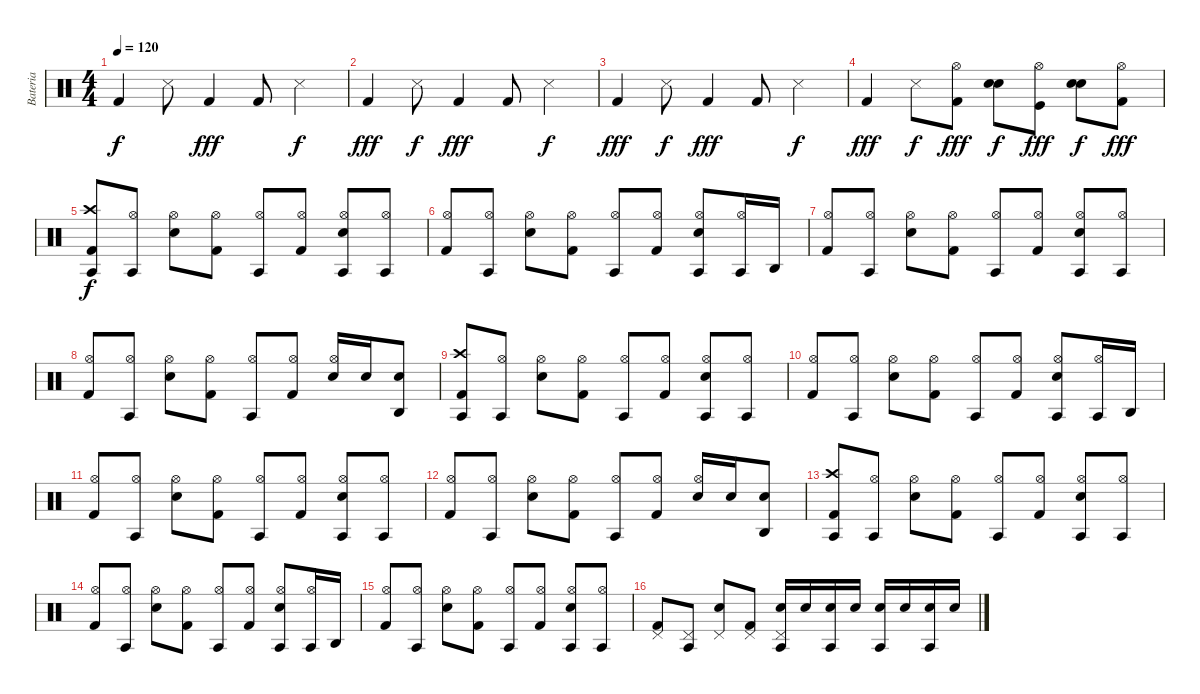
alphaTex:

\track ("Bateria" "Bateria") {instrument percussion}
\staff {score}
\articulation defaults
\ts (4 4)
\tempo 120
\clef neutral
\ks c "Kick (hit) 2".4{dy f} "Snare (side stick) 3".8 "Kick (hit) 2".4{dy fff} "Kick (hit) 2".8 "Snare (side stick) 3".4{dy f}
|
"Kick (hit) 2".4{dy fff} "Snare (side stick) 3".8{dy f} "Kick (hit) 2".4{dy fff} "Kick (hit) 2".8 "Snare (side stick) 3".4{dy f} |
"Kick (hit) 2".4{dy fff} "Snare (side stick) 3".8{dy f} "Kick (hit) 2".4{dy fff} "Kick (hit) 2".8 "Snare (side stick) 3".4{dy f} |
"Kick (hit) 2".4{dy fff} "Snare (side stick) 3".8{dy f} ("Hi-Hat (open)" "Kick (hit) 2").8{dy fff} ("Snare (hit) 2" "Snare (hit) 2").8{bd 480 dy f} ("Hi-Hat (open)" "Kick (hit)").8{dy fff} ("Snare (hit) 2" "Snare (hit) 2").8{bd 480 dy f} ("Hi-Hat (open)" "Kick (hit) 2").8{dy fff} |
("Crash high (hit)" "Agogo tow (hit)" "Kick (hit) 2").8{dy f} ("Hi-Hat (open)" "Agogo tow (hit)").8 ("Hi-Hat (open)" "Snare (hit) 2").8 ("Hi-Hat (open)" "Kick (hit) 2").8 ("Hi-Hat (open)" "Agogo tow (hit)").8 ("Hi-Hat (open)" "Kick (hit) 2").8 ("Hi-Hat (open)" "Snare (hit) 2" "Agogo tow (hit)").8 ("Hi-Hat (open)" "Agogo tow (hit)").8 |
("Hi-Hat (open)" "Kick (hit) 2").8 ("Hi-Hat (open)" "Agogo tow (hit)").8 ("Hi-Hat (open)" "Snare (hit) 2").8 ("Hi-Hat (open)" "Kick (hit) 2").8 ("Hi-Hat (open)" "Agogo tow (hit)").8 ("Hi-Hat (open)" "Kick (hit) 2").8 ("Hi-Hat (open)" "Snare (hit) 2" "Agogo tow (hit)").8 ("Hi-Hat (open)" "Agogo tow (hit)").16 "Agogo high (hit)".16 |
("Hi-Hat (open)" "Kick (hit) 2").8 ("Hi-Hat (open)" "Agogo tow (hit)").8 ("Hi-Hat (open)" "Snare (hit) 2").8 ("Hi-Hat (open)" "Kick (hit) 2").8 ("Hi-Hat (open)" "Agogo tow (hit)").8 ("Hi-Hat (open)" "Kick (hit) 2").8 ("Hi-Hat (open)" "Snare (hit) 2" "Agogo tow (hit)").8 ("Hi-Hat (open)" "Agogo tow (hit)").8 |
("Hi-Hat (open)" "Kick (hit) 2").8 ("Hi-Hat (open)" "Agogo tow (hit)").8 ("Hi-Hat (open)" "Snare (hit) 2").8 ("Hi-Hat (open)" "Kick (hit) 2").8 ("Hi-Hat (open)" "Agogo tow (hit)").8 ("Hi-Hat (open)" "Kick (hit) 2").8 ("Hi-Hat (open)" "Snare (hit) 2").16 "Snare (hit) 2".16 ("Snare (hit) 2" "Agogo high (hit)").8 |
("Crash high (hit)" "Agogo tow (hit)" "Kick (hit) 2").8 ("Hi-Hat (open)" "Agogo tow (hit)").8 ("Hi-Hat (open)" "Snare (hit) 2").8 ("Hi-Hat (open)" "Kick (hit) 2").8 ("Hi-Hat (open)" "Agogo tow (hit)").8 ("Hi-Hat (open)" "Kick (hit) 2").8 ("Hi-Hat (open)" "Snare (hit) 2" "Agogo tow (hit)").8 ("Hi-Hat (open)" "Agogo tow (hit)").8 |
("Hi-Hat (open)" "Kick (hit) 2").8 ("Hi-Hat (open)" "Agogo tow (hit)").8 ("Hi-Hat (open)" "Snare (hit) 2").8 ("Hi-Hat (open)" "Kick (hit) 2").8 ("Hi-Hat (open)" "Agogo tow (hit)").8 ("Hi-Hat (open)" "Kick (hit) 2").8 ("Hi-Hat (open)" "Snare (hit) 2" "Agogo tow (hit)").8 ("Hi-Hat (open)" "Agogo tow (hit)").16 "Agogo high (hit)".16 |
("Hi-Hat (open)" "Kick (hit) 2").8 ("Hi-Hat (open)" "Agogo tow (hit)").8 ("Hi-Hat (open)" "Snare (hit) 2").8 ("Hi-Hat (open)" "Kick (hit) 2").8 ("Hi-Hat (open)" "Agogo tow (hit)").8 ("Hi-Hat (open)" "Kick (hit) 2").8 ("Hi-Hat (open)" "Snare (hit) 2" "Agogo tow (hit)").8 ("Hi-Hat (open)" "Agogo tow (hit)").8 |
("Hi-Hat (open)" "Kick (hit) 2").8 ("Hi-Hat (open)" "Agogo tow (hit)").8 ("Hi-Hat (open)" "Snare (hit) 2").8 ("Hi-Hat (open)" "Kick (hit) 2").8 ("Hi-Hat (open)" "Agogo tow (hit)").8 ("Hi-Hat (open)" "Kick (hit) 2").8 ("Hi-Hat (open)" "Snare (hit) 2").16 "Snare (hit) 2".16 ("Snare (hit) 2" "Agogo high (hit)").8 |
("Crash high (hit)" "Agogo tow (hit)" "Kick (hit) 2").8 ("Hi-Hat (open)" "Agogo tow (hit)").8 ("Hi-Hat (open)" "Snare (hit) 2").8 ("Hi-Hat (open)" "Kick (hit) 2").8 ("Hi-Hat (open)" "Agogo tow (hit)").8 ("Hi-Hat (open)" "Kick (hit) 2").8 ("Hi-Hat (open)" "Snare (hit) 2" "Agogo tow (hit)").8 ("Hi-Hat (open)" "Agogo tow (hit)").8 |
("Hi-Hat (open)" "Kick (hit) 2").8 ("Hi-Hat (open)" "Agogo tow (hit)").8 ("Hi-Hat (open)" "Snare (hit) 2").8 ("Hi-Hat (open)" "Kick (hit) 2").8 ("Hi-Hat (open)" "Agogo tow (hit)").8 ("Hi-Hat (open)" "Kick (hit) 2").8 ("Hi-Hat (open)" "Snare (hit) 2" "Agogo tow (hit)").8 ("Hi-Hat (open)" "Agogo tow (hit)").16 "Agogo high (hit)".16 |
("Hi-Hat (open)" "Kick (hit) 2").8 ("Hi-Hat (open)" "Agogo tow (hit)").8 ("Hi-Hat (open)" "Snare (hit) 2").8 ("Hi-Hat (open)" "Kick (hit) 2").8 ("Hi-Hat (open)" "Agogo tow (hit)").8 ("Hi-Hat (open)" "Kick (hit) 2").8 ("Hi-Hat (open)" "Snare (hit) 2" "Agogo tow (hit)").8 ("Hi-Hat (open)" "Agogo tow (hit)").8 |
("Pedal Hi-Hat (hit)" "Kick (hit) 2").8 ("Pedal Hi-Hat (hit)" "Agogo tow (hit)").8 ("Pedal Hi-Hat (hit)" "Snare (hit) 2").8 ("Pedal Hi-Hat (hit)" "Kick (hit) 2").8 ("Pedal Hi-Hat (hit)" "Snare (hit) 2" "Agogo tow (hit)").16 "Snare (hit) 2".16 ("Snare (hit) 2" "Agogo tow (hit)").16 "Snare (hit) 2".16 ("Snare (hit) 2" "Agogo tow (hit)").16 "Snare (hit) 2".16 ("Snare (hit) 2" "Agogo tow (hit)").16 "Snare (hit) 2".16
